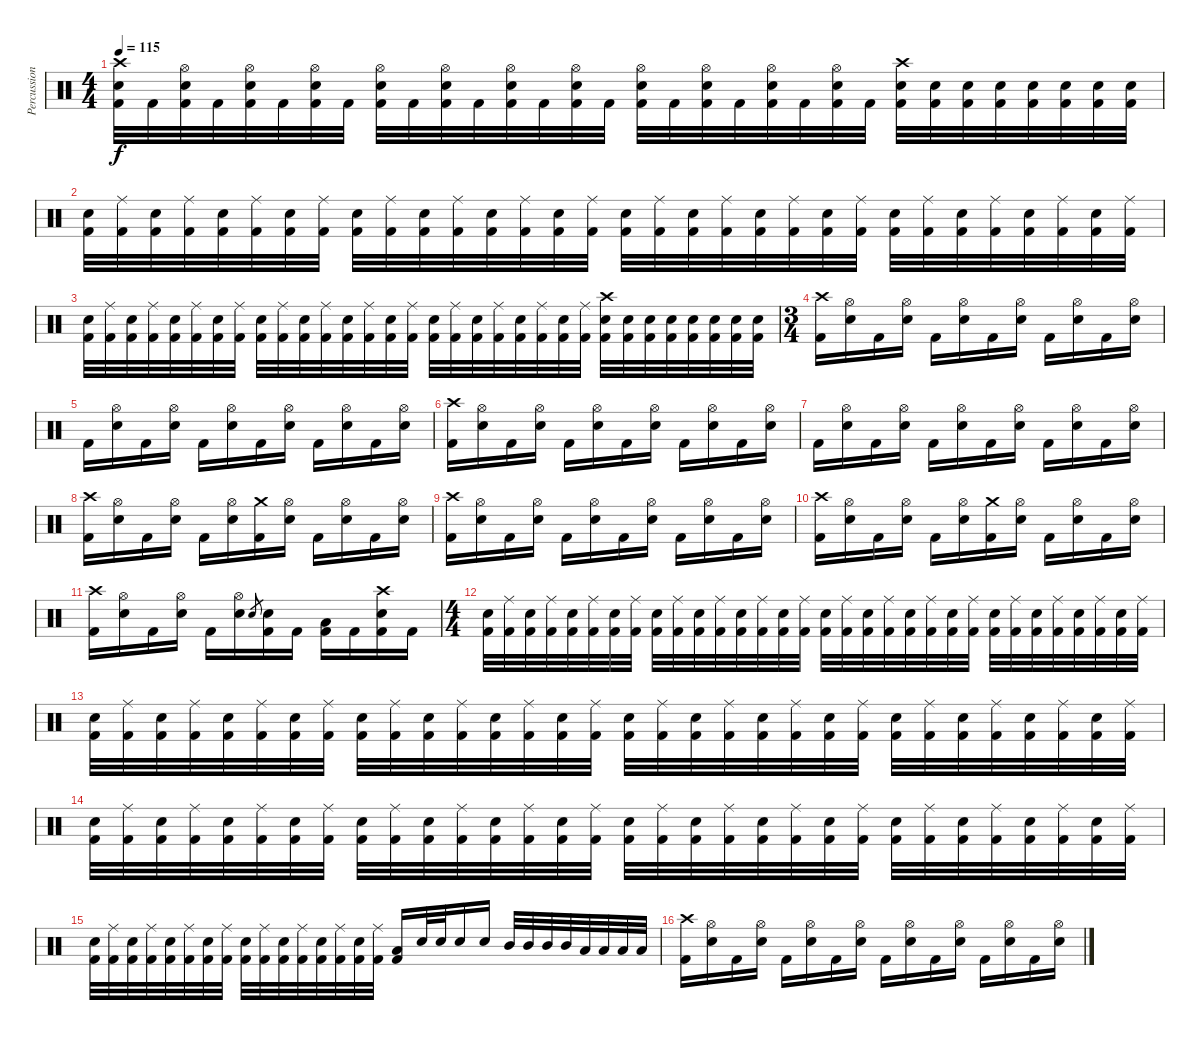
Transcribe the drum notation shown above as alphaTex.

\track ("Percussion" "Percussion") {instrument percussion}
\staff {score}
\articulation defaults
\ts (4 4)
\tempo 115
\clef neutral
\ks c
("Crash high (hit)" "Electric Snare (hit)" "Kick (hit) 2").32{dy f} "Kick (hit) 2".32 ("Hi-Hat (open)" "Electric Snare (hit)" "Kick (hit) 2").32 "Kick (hit) 2".32 ("Hi-Hat (open)" "Electric Snare (hit)" "Kick (hit) 2").32 "Kick (hit) 2".32 ("Hi-Hat (open)" "Electric Snare (hit)" "Kick (hit) 2").32 "Kick (hit) 2".32 ("Hi-Hat (open)" "Electric Snare (hit)" "Kick (hit) 2").32 "Kick (hit) 2".32 ("Hi-Hat (open)" "Electric Snare (hit)" "Kick (hit) 2").32 "Kick (hit) 2".32 ("Hi-Hat (open)" "Electric Snare (hit)" "Kick (hit) 2").32 "Kick (hit) 2".32 ("Hi-Hat (open)" "Electric Snare (hit)" "Kick (hit) 2").32 "Kick (hit) 2".32 ("Hi-Hat (open)" "Electric Snare (hit)" "Kick (hit) 2").32 "Kick (hit) 2".32 ("Hi-Hat (open)" "Electric Snare (hit)" "Kick (hit) 2").32 "Kick (hit) 2".32 ("Hi-Hat (open)" "Electric Snare (hit)" "Kick (hit) 2").32 "Kick (hit) 2".32 ("Hi-Hat (open)" "Electric Snare (hit)" "Kick (hit) 2").32 "Kick (hit) 2".32 ("Crash high (hit)" "Electric Snare (hit)" "Kick (hit) 2").32 ("Electric Snare (hit)" "Kick (hit) 2").32 ("Electric Snare (hit)" "Kick (hit) 2").32 ("Electric Snare (hit)" "Kick (hit) 2").32 ("Electric Snare (hit)" "Kick (hit) 2").32 ("Electric Snare (hit)" "Kick (hit) 2").32 ("Electric Snare (hit)" "Kick (hit) 2").32 ("Electric Snare (hit)" "Kick (hit) 2").32 |
("Electric Snare (hit)" "Kick (hit) 2").32 ("Ride (middle)" "Kick (hit) 2").32 ("Electric Snare (hit)" "Kick (hit) 2").32 ("Ride (middle)" "Kick (hit) 2").32 ("Electric Snare (hit)" "Kick (hit) 2").32 ("Ride (middle)" "Kick (hit) 2").32 ("Electric Snare (hit)" "Kick (hit) 2").32 ("Ride (middle)" "Kick (hit) 2").32 ("Electric Snare (hit)" "Kick (hit) 2").32 ("Ride (middle)" "Kick (hit) 2").32 ("Electric Snare (hit)" "Kick (hit) 2").32 ("Ride (middle)" "Kick (hit) 2").32 ("Electric Snare (hit)" "Kick (hit) 2").32 ("Ride (middle)" "Kick (hit) 2").32 ("Electric Snare (hit)" "Kick (hit) 2").32 ("Ride (middle)" "Kick (hit) 2").32 ("Electric Snare (hit)" "Kick (hit) 2").32 ("Ride (middle)" "Kick (hit) 2").32 ("Electric Snare (hit)" "Kick (hit) 2").32 ("Ride (middle)" "Kick (hit) 2").32 ("Electric Snare (hit)" "Kick (hit) 2").32 ("Ride (middle)" "Kick (hit) 2").32 ("Electric Snare (hit)" "Kick (hit) 2").32 ("Ride (middle)" "Kick (hit) 2").32 ("Electric Snare (hit)" "Kick (hit) 2").32 ("Ride (middle)" "Kick (hit) 2").32 ("Electric Snare (hit)" "Kick (hit) 2").32 ("Ride (middle)" "Kick (hit) 2").32 ("Electric Snare (hit)" "Kick (hit) 2").32 ("Ride (middle)" "Kick (hit) 2").32 ("Electric Snare (hit)" "Kick (hit) 2").32 ("Ride (middle)" "Kick (hit) 2").32 |
("Electric Snare (hit)" "Kick (hit) 2").32 ("Ride (middle)" "Kick (hit) 2").32 ("Electric Snare (hit)" "Kick (hit) 2").32 ("Ride (middle)" "Kick (hit) 2").32 ("Electric Snare (hit)" "Kick (hit) 2").32 ("Ride (middle)" "Kick (hit) 2").32 ("Electric Snare (hit)" "Kick (hit) 2").32 ("Ride (middle)" "Kick (hit) 2").32 ("Electric Snare (hit)" "Kick (hit) 2").32 ("Ride (middle)" "Kick (hit) 2").32 ("Electric Snare (hit)" "Kick (hit) 2").32 ("Ride (middle)" "Kick (hit) 2").32 ("Electric Snare (hit)" "Kick (hit) 2").32 ("Ride (middle)" "Kick (hit) 2").32 ("Electric Snare (hit)" "Kick (hit) 2").32 ("Ride (middle)" "Kick (hit) 2").32 ("Electric Snare (hit)" "Kick (hit) 2").32 ("Ride (middle)" "Kick (hit) 2").32 ("Electric Snare (hit)" "Kick (hit) 2").32 ("Ride (middle)" "Kick (hit) 2").32 ("Electric Snare (hit)" "Kick (hit) 2").32 ("Ride (middle)" "Kick (hit) 2").32 ("Electric Snare (hit)" "Kick (hit) 2").32 ("Ride (middle)" "Kick (hit) 2").32 ("Crash high (hit)" "Electric Snare (hit)" "Kick (hit) 2").32 ("Electric Snare (hit)" "Kick (hit) 2").32 ("Electric Snare (hit)" "Kick (hit) 2").32 ("Electric Snare (hit)" "Kick (hit) 2").32 ("Electric Snare (hit)" "Kick (hit) 2").32 ("Electric Snare (hit)" "Kick (hit) 2").32 ("Electric Snare (hit)" "Kick (hit) 2").32 ("Electric Snare (hit)" "Kick (hit) 2").32 |
\ts (3 4)
("Crash high (hit)" "Kick (hit) 2").16 ("Hi-Hat (open)" "Electric Snare (hit)").16 "Kick (hit) 2".16 ("Hi-Hat (open)" "Electric Snare (hit)").16 "Kick (hit) 2".16 ("Hi-Hat (open)" "Electric Snare (hit)").16 "Kick (hit) 2".16 ("Hi-Hat (open)" "Electric Snare (hit)").16 "Kick (hit) 2".16 ("Hi-Hat (open)" "Electric Snare (hit)").16 "Kick (hit) 2".16 ("Hi-Hat (open)" "Electric Snare (hit)").16 |
"Kick (hit) 2".16 ("Hi-Hat (open)" "Electric Snare (hit)").16 "Kick (hit) 2".16 ("Hi-Hat (open)" "Electric Snare (hit)").16 "Kick (hit) 2".16 ("Hi-Hat (open)" "Electric Snare (hit)").16 "Kick (hit) 2".16 ("Hi-Hat (open)" "Electric Snare (hit)").16 "Kick (hit) 2".16 ("Hi-Hat (open)" "Electric Snare (hit)").16 "Kick (hit) 2".16 ("Hi-Hat (open)" "Electric Snare (hit)").16 |
("Crash high (hit)" "Kick (hit) 2").16 ("Hi-Hat (open)" "Electric Snare (hit)").16 "Kick (hit) 2".16 ("Hi-Hat (open)" "Electric Snare (hit)").16 "Kick (hit) 2".16 ("Hi-Hat (open)" "Electric Snare (hit)").16 "Kick (hit) 2".16 ("Hi-Hat (open)" "Electric Snare (hit)").16 "Kick (hit) 2".16 ("Hi-Hat (open)" "Electric Snare (hit)").16 "Kick (hit) 2".16 ("Hi-Hat (open)" "Electric Snare (hit)").16 |
"Kick (hit) 2".16 ("Hi-Hat (open)" "Electric Snare (hit)").16 "Kick (hit) 2".16 ("Hi-Hat (open)" "Electric Snare (hit)").16 "Kick (hit) 2".16 ("Hi-Hat (open)" "Electric Snare (hit)").16 "Kick (hit) 2".16 ("Hi-Hat (open)" "Electric Snare (hit)").16 "Kick (hit) 2".16 ("Hi-Hat (open)" "Electric Snare (hit)").16 "Kick (hit) 2".16 ("Hi-Hat (open)" "Electric Snare (hit)").16 |
("Crash high (hit)" "Kick (hit) 2").16 ("Hi-Hat (open)" "Electric Snare (hit)").16 "Kick (hit) 2".16 ("Hi-Hat (open)" "Electric Snare (hit)").16 "Kick (hit) 2".16 ("Hi-Hat (open)" "Electric Snare (hit)").16 ("Crash medium (hit)" "Kick (hit) 2").16 ("Hi-Hat (open)" "Electric Snare (hit)").16 "Kick (hit) 2".16 ("Hi-Hat (open)" "Electric Snare (hit)").16 "Kick (hit) 2".16 ("Hi-Hat (open)" "Electric Snare (hit)").16 |
("Crash high (hit)" "Kick (hit) 2").16 ("Hi-Hat (open)" "Electric Snare (hit)").16 "Kick (hit) 2".16 ("Hi-Hat (open)" "Electric Snare (hit)").16 "Kick (hit) 2".16 ("Hi-Hat (open)" "Electric Snare (hit)").16 "Kick (hit) 2".16 ("Hi-Hat (open)" "Electric Snare (hit)").16 "Kick (hit) 2".16 ("Hi-Hat (open)" "Electric Snare (hit)").16 "Kick (hit) 2".16 ("Hi-Hat (open)" "Electric Snare (hit)").16 |
("Crash high (hit)" "Kick (hit) 2").16 ("Hi-Hat (open)" "Electric Snare (hit)").16 "Kick (hit) 2".16 ("Hi-Hat (open)" "Electric Snare (hit)").16 "Kick (hit) 2".16 ("Hi-Hat (open)" "Electric Snare (hit)").16 ("Crash medium (hit)" "Kick (hit) 2").16 ("Hi-Hat (open)" "Electric Snare (hit)").16 "Kick (hit) 2".16 ("Hi-Hat (open)" "Electric Snare (hit)").16 "Kick (hit) 2".16 ("Hi-Hat (open)" "Electric Snare (hit)").16 |
("Crash high (hit)" "Kick (hit) 2").16 ("Hi-Hat (open)" "Electric Snare (hit)").16 "Kick (hit) 2".16 ("Hi-Hat (open)" "Electric Snare (hit)").16 "Kick (hit) 2".16 ("Hi-Hat (open)" "Electric Snare (hit)").16 "Electric Snare (hit)".8{gr} ("Electric Snare (hit)" "Kick (hit) 2").16 "Kick (hit) 2".16 ("Low Tom (hit)" "Kick (hit) 2").16 "Kick (hit) 2".16 ("Crash high (hit)" "Electric Snare (hit)" "Kick (hit) 2").16 "Kick (hit) 2".16 |
\ts (4 4)
("Electric Snare (hit)" "Kick (hit) 2").32 ("Ride (middle)" "Kick (hit) 2").32 ("Electric Snare (hit)" "Kick (hit) 2").32 ("Ride (middle)" "Kick (hit) 2").32 ("Electric Snare (hit)" "Kick (hit) 2").32 ("Ride (middle)" "Kick (hit) 2").32 ("Electric Snare (hit)" "Kick (hit) 2").32 ("Ride (middle)" "Kick (hit) 2").32 ("Electric Snare (hit)" "Kick (hit) 2").32 ("Ride (middle)" "Kick (hit) 2").32 ("Electric Snare (hit)" "Kick (hit) 2").32 ("Ride (middle)" "Kick (hit) 2").32 ("Electric Snare (hit)" "Kick (hit) 2").32 ("Ride (middle)" "Kick (hit) 2").32 ("Electric Snare (hit)" "Kick (hit) 2").32 ("Ride (middle)" "Kick (hit) 2").32 ("Electric Snare (hit)" "Kick (hit) 2").32 ("Ride (middle)" "Kick (hit) 2").32 ("Electric Snare (hit)" "Kick (hit) 2").32 ("Ride (middle)" "Kick (hit) 2").32 ("Electric Snare (hit)" "Kick (hit) 2").32 ("Ride (middle)" "Kick (hit) 2").32 ("Electric Snare (hit)" "Kick (hit) 2").32 ("Ride (middle)" "Kick (hit) 2").32 ("Electric Snare (hit)" "Kick (hit) 2").32 ("Ride (middle)" "Kick (hit) 2").32 ("Electric Snare (hit)" "Kick (hit) 2").32 ("Ride (middle)" "Kick (hit) 2").32 ("Electric Snare (hit)" "Kick (hit) 2").32 ("Ride (middle)" "Kick (hit) 2").32 ("Electric Snare (hit)" "Kick (hit) 2").32 ("Ride (middle)" "Kick (hit) 2").32 |
("Electric Snare (hit)" "Kick (hit) 2").32 ("Ride (middle)" "Kick (hit) 2").32 ("Electric Snare (hit)" "Kick (hit) 2").32 ("Ride (middle)" "Kick (hit) 2").32 ("Electric Snare (hit)" "Kick (hit) 2").32 ("Ride (middle)" "Kick (hit) 2").32 ("Electric Snare (hit)" "Kick (hit) 2").32 ("Ride (middle)" "Kick (hit) 2").32 ("Electric Snare (hit)" "Kick (hit) 2").32 ("Ride (middle)" "Kick (hit) 2").32 ("Electric Snare (hit)" "Kick (hit) 2").32 ("Ride (middle)" "Kick (hit) 2").32 ("Electric Snare (hit)" "Kick (hit) 2").32 ("Ride (middle)" "Kick (hit) 2").32 ("Electric Snare (hit)" "Kick (hit) 2").32 ("Ride (middle)" "Kick (hit) 2").32 ("Electric Snare (hit)" "Kick (hit) 2").32 ("Ride (middle)" "Kick (hit) 2").32 ("Electric Snare (hit)" "Kick (hit) 2").32 ("Ride (middle)" "Kick (hit) 2").32 ("Electric Snare (hit)" "Kick (hit) 2").32 ("Ride (middle)" "Kick (hit) 2").32 ("Electric Snare (hit)" "Kick (hit) 2").32 ("Ride (middle)" "Kick (hit) 2").32 ("Electric Snare (hit)" "Kick (hit) 2").32 ("Ride (middle)" "Kick (hit) 2").32 ("Electric Snare (hit)" "Kick (hit) 2").32 ("Ride (middle)" "Kick (hit) 2").32 ("Electric Snare (hit)" "Kick (hit) 2").32 ("Ride (middle)" "Kick (hit) 2").32 ("Electric Snare (hit)" "Kick (hit) 2").32 ("Ride (middle)" "Kick (hit) 2").32 |
("Electric Snare (hit)" "Kick (hit) 2").32 ("Ride (middle)" "Kick (hit) 2").32 ("Electric Snare (hit)" "Kick (hit) 2").32 ("Ride (middle)" "Kick (hit) 2").32 ("Electric Snare (hit)" "Kick (hit) 2").32 ("Ride (middle)" "Kick (hit) 2").32 ("Electric Snare (hit)" "Kick (hit) 2").32 ("Ride (middle)" "Kick (hit) 2").32 ("Electric Snare (hit)" "Kick (hit) 2").32 ("Ride (middle)" "Kick (hit) 2").32 ("Electric Snare (hit)" "Kick (hit) 2").32 ("Ride (middle)" "Kick (hit) 2").32 ("Electric Snare (hit)" "Kick (hit) 2").32 ("Ride (middle)" "Kick (hit) 2").32 ("Electric Snare (hit)" "Kick (hit) 2").32 ("Ride (middle)" "Kick (hit) 2").32 ("Electric Snare (hit)" "Kick (hit) 2").32 ("Ride (middle)" "Kick (hit) 2").32 ("Electric Snare (hit)" "Kick (hit) 2").32 ("Ride (middle)" "Kick (hit) 2").32 ("Electric Snare (hit)" "Kick (hit) 2").32 ("Ride (middle)" "Kick (hit) 2").32 ("Electric Snare (hit)" "Kick (hit) 2").32 ("Ride (middle)" "Kick (hit) 2").32 ("Electric Snare (hit)" "Kick (hit) 2").32 ("Ride (middle)" "Kick (hit) 2").32 ("Electric Snare (hit)" "Kick (hit) 2").32 ("Ride (middle)" "Kick (hit) 2").32 ("Electric Snare (hit)" "Kick (hit) 2").32 ("Ride (middle)" "Kick (hit) 2").32 ("Electric Snare (hit)" "Kick (hit) 2").32 ("Ride (middle)" "Kick (hit) 2").32 |
("Electric Snare (hit)" "Kick (hit) 2").32 ("Ride (middle)" "Kick (hit) 2").32 ("Electric Snare (hit)" "Kick (hit) 2").32 ("Ride (middle)" "Kick (hit) 2").32 ("Electric Snare (hit)" "Kick (hit) 2").32 ("Ride (middle)" "Kick (hit) 2").32 ("Electric Snare (hit)" "Kick (hit) 2").32 ("Ride (middle)" "Kick (hit) 2").32 ("Electric Snare (hit)" "Kick (hit) 2").32 ("Ride (middle)" "Kick (hit) 2").32 ("Electric Snare (hit)" "Kick (hit) 2").32 ("Ride (middle)" "Kick (hit) 2").32 ("Electric Snare (hit)" "Kick (hit) 2").32 ("Ride (middle)" "Kick (hit) 2").32 ("Electric Snare (hit)" "Kick (hit) 2").32 ("Ride (middle)" "Kick (hit) 2").32 ("Low Tom (hit)" "Kick (hit) 2").16 "Electric Snare (hit)".32 "Electric Snare (hit)".32 "Electric Snare (hit)".16 "Electric Snare (hit)".16 "Mid Tom (hit)".32 "Mid Tom (hit)".32 "Mid Tom (hit)".32 "Mid Tom (hit)".32 "Low Tom (hit)".32 "Low Tom (hit)".32 "Low Tom (hit)".32 "Low Tom (hit)".32 |
("Crash high (hit)" "Kick (hit) 2").16 ("Hi-Hat (open)" "Electric Snare (hit)").16 "Kick (hit) 2".16 ("Hi-Hat (open)" "Electric Snare (hit)").16 "Kick (hit) 2".16 ("Hi-Hat (open)" "Electric Snare (hit)").16 "Kick (hit) 2".16 ("Hi-Hat (open)" "Electric Snare (hit)").16 "Kick (hit) 2".16 ("Hi-Hat (open)" "Electric Snare (hit)").16 "Kick (hit) 2".16 ("Hi-Hat (open)" "Electric Snare (hit)").16 "Kick (hit) 2".16 ("Hi-Hat (open)" "Electric Snare (hit)").16 "Kick (hit) 2".16 ("Hi-Hat (open)" "Electric Snare (hit)").16
